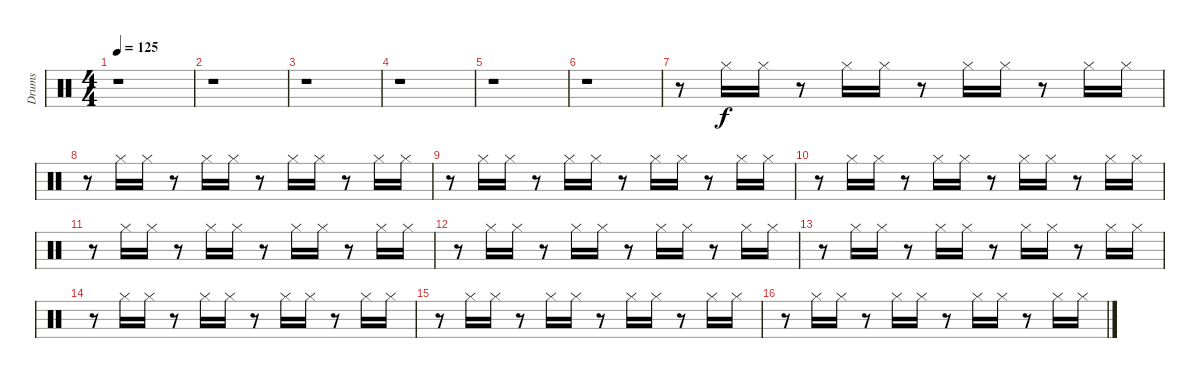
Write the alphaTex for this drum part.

\track ("Drums" "Drums") {instrument percussion}
\staff {score}
\articulation defaults
\ts (4 4)
\tempo 125
\clef neutral
\ks c
r.1{dy f} |
r.1 |
r.1 |
r.1 |
r.1 |
r.1 |
r.8 "Hi-Hat (closed)".16 "Hi-Hat (closed)".16 r.8 "Hi-Hat (closed)".16 "Hi-Hat (closed)".16 r.8 "Hi-Hat (closed)".16 "Hi-Hat (closed)".16 r.8 "Hi-Hat (closed)".16 "Hi-Hat (closed)".16 |
r.8 "Hi-Hat (closed)".16 "Hi-Hat (closed)".16 r.8 "Hi-Hat (closed)".16 "Hi-Hat (closed)".16 r.8 "Hi-Hat (closed)".16 "Hi-Hat (closed)".16 r.8 "Hi-Hat (closed)".16 "Hi-Hat (closed)".16 |
r.8 "Hi-Hat (closed)".16 "Hi-Hat (closed)".16 r.8 "Hi-Hat (closed)".16 "Hi-Hat (closed)".16 r.8 "Hi-Hat (closed)".16 "Hi-Hat (closed)".16 r.8 "Hi-Hat (closed)".16 "Hi-Hat (closed)".16 |
r.8 "Hi-Hat (closed)".16 "Hi-Hat (closed)".16 r.8 "Hi-Hat (closed)".16 "Hi-Hat (closed)".16 r.8 "Hi-Hat (closed)".16 "Hi-Hat (closed)".16 r.8 "Hi-Hat (closed)".16 "Hi-Hat (closed)".16 |
r.8 "Hi-Hat (closed)".16 "Hi-Hat (closed)".16 r.8 "Hi-Hat (closed)".16 "Hi-Hat (closed)".16 r.8 "Hi-Hat (closed)".16 "Hi-Hat (closed)".16 r.8 "Hi-Hat (closed)".16 "Hi-Hat (closed)".16 |
r.8 "Hi-Hat (closed)".16 "Hi-Hat (closed)".16 r.8 "Hi-Hat (closed)".16 "Hi-Hat (closed)".16 r.8 "Hi-Hat (closed)".16 "Hi-Hat (closed)".16 r.8 "Hi-Hat (closed)".16 "Hi-Hat (closed)".16 |
r.8 "Hi-Hat (closed)".16 "Hi-Hat (closed)".16 r.8 "Hi-Hat (closed)".16 "Hi-Hat (closed)".16 r.8 "Hi-Hat (closed)".16 "Hi-Hat (closed)".16 r.8 "Hi-Hat (closed)".16 "Hi-Hat (closed)".16 |
r.8 "Hi-Hat (closed)".16 "Hi-Hat (closed)".16 r.8 "Hi-Hat (closed)".16 "Hi-Hat (closed)".16 r.8 "Hi-Hat (closed)".16 "Hi-Hat (closed)".16 r.8 "Hi-Hat (closed)".16 "Hi-Hat (closed)".16 |
r.8 "Hi-Hat (closed)".16 "Hi-Hat (closed)".16 r.8 "Hi-Hat (closed)".16 "Hi-Hat (closed)".16 r.8 "Hi-Hat (closed)".16 "Hi-Hat (closed)".16 r.8 "Hi-Hat (closed)".16 "Hi-Hat (closed)".16 |
r.8 "Hi-Hat (closed)".16 "Hi-Hat (closed)".16 r.8 "Hi-Hat (closed)".16 "Hi-Hat (closed)".16 r.8 "Hi-Hat (closed)".16 "Hi-Hat (closed)".16 r.8 "Hi-Hat (closed)".16 "Hi-Hat (closed)".16
